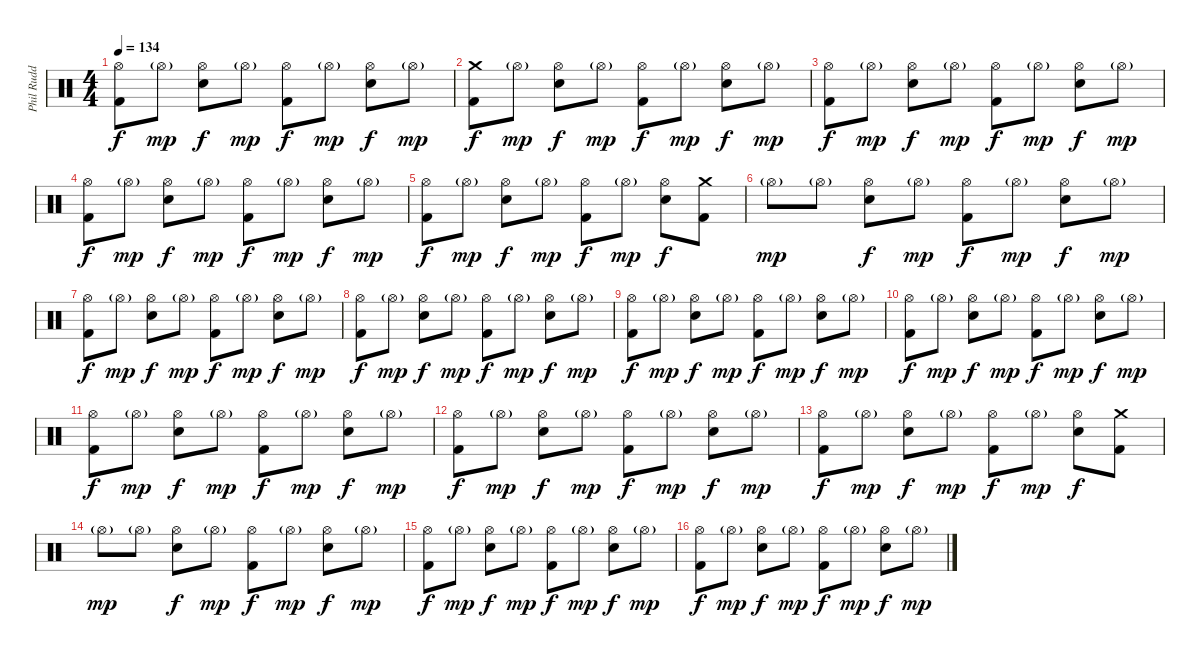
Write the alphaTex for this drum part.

\track ("Phil Rudd" "Phil Rudd") {instrument percussion}
\staff {score}
\articulation defaults
\ts (4 4)
\tempo 134
\clef neutral
\ks c
("Hi-Hat (open)" "Kick (hit) 2").8{dy f} "Hi-Hat (open)"{g}.8{dy mp} ("Hi-Hat (open)" "Snare (hit) 2").8{dy f} "Hi-Hat (open)"{g}.8{dy mp} ("Hi-Hat (open)" "Kick (hit) 2").8{dy f} "Hi-Hat (open)"{g}.8{dy mp} ("Hi-Hat (open)" "Snare (hit) 2").8{dy f} "Hi-Hat (open)"{g}.8{dy mp} |
("Crash medium (hit)" "Kick (hit) 2").8{dy f} "Hi-Hat (open)"{g}.8{dy mp} ("Hi-Hat (open)" "Snare (hit) 2").8{dy f} "Hi-Hat (open)"{g}.8{dy mp} ("Hi-Hat (open)" "Kick (hit) 2").8{dy f} "Hi-Hat (open)"{g}.8{dy mp} ("Hi-Hat (open)" "Snare (hit) 2").8{dy f} "Hi-Hat (open)"{g}.8{dy mp} |
("Hi-Hat (open)" "Kick (hit) 2").8{dy f} "Hi-Hat (open)"{g}.8{dy mp} ("Hi-Hat (open)" "Snare (hit) 2").8{dy f} "Hi-Hat (open)"{g}.8{dy mp} ("Hi-Hat (open)" "Kick (hit) 2").8{dy f} "Hi-Hat (open)"{g}.8{dy mp} ("Hi-Hat (open)" "Snare (hit) 2").8{dy f} "Hi-Hat (open)"{g}.8{dy mp} |
("Hi-Hat (open)" "Kick (hit) 2").8{dy f} "Hi-Hat (open)"{g}.8{dy mp} ("Hi-Hat (open)" "Snare (hit) 2").8{dy f} "Hi-Hat (open)"{g}.8{dy mp} ("Hi-Hat (open)" "Kick (hit) 2").8{dy f} "Hi-Hat (open)"{g}.8{dy mp} ("Hi-Hat (open)" "Snare (hit) 2").8{dy f} "Hi-Hat (open)"{g}.8{dy mp} |
("Hi-Hat (open)" "Kick (hit) 2").8{dy f} "Hi-Hat (open)"{g}.8{dy mp} ("Hi-Hat (open)" "Snare (hit) 2").8{dy f} "Hi-Hat (open)"{g}.8{dy mp} ("Hi-Hat (open)" "Kick (hit) 2").8{dy f} "Hi-Hat (open)"{g}.8{dy mp} ("Hi-Hat (open)" "Snare (hit) 2").8{dy f} ("Crash medium (hit)" "Kick (hit) 2").8 |
"Hi-Hat (open)"{g}.8{dy mp} "Hi-Hat (open)"{g}.8 ("Hi-Hat (open)" "Snare (hit) 2").8{dy f} "Hi-Hat (open)"{g}.8{dy mp} ("Hi-Hat (open)" "Kick (hit) 2").8{dy f} "Hi-Hat (open)"{g}.8{dy mp} ("Hi-Hat (open)" "Snare (hit) 2").8{dy f} "Hi-Hat (open)"{g}.8{dy mp} |
("Hi-Hat (open)" "Kick (hit) 2").8{dy f} "Hi-Hat (open)"{g}.8{dy mp} ("Hi-Hat (open)" "Snare (hit) 2").8{dy f} "Hi-Hat (open)"{g}.8{dy mp} ("Hi-Hat (open)" "Kick (hit) 2").8{dy f} "Hi-Hat (open)"{g}.8{dy mp} ("Hi-Hat (open)" "Snare (hit) 2").8{dy f} "Hi-Hat (open)"{g}.8{dy mp} |
("Hi-Hat (open)" "Kick (hit) 2").8{dy f} "Hi-Hat (open)"{g}.8{dy mp} ("Hi-Hat (open)" "Snare (hit) 2").8{dy f} "Hi-Hat (open)"{g}.8{dy mp} ("Hi-Hat (open)" "Kick (hit) 2").8{dy f} "Hi-Hat (open)"{g}.8{dy mp} ("Hi-Hat (open)" "Snare (hit) 2").8{dy f} "Hi-Hat (open)"{g}.8{dy mp} |
("Hi-Hat (open)" "Kick (hit) 2").8{dy f} "Hi-Hat (open)"{g}.8{dy mp} ("Hi-Hat (open)" "Snare (hit) 2").8{dy f} "Hi-Hat (open)"{g}.8{dy mp} ("Hi-Hat (open)" "Kick (hit) 2").8{dy f} "Hi-Hat (open)"{g}.8{dy mp} ("Hi-Hat (open)" "Snare (hit) 2").8{dy f} "Hi-Hat (open)"{g}.8{dy mp} |
("Hi-Hat (open)" "Kick (hit) 2").8{dy f} "Hi-Hat (open)"{g}.8{dy mp} ("Hi-Hat (open)" "Snare (hit) 2").8{dy f} "Hi-Hat (open)"{g}.8{dy mp} ("Hi-Hat (open)" "Kick (hit) 2").8{dy f} "Hi-Hat (open)"{g}.8{dy mp} ("Hi-Hat (open)" "Snare (hit) 2").8{dy f} "Hi-Hat (open)"{g}.8{dy mp} |
("Hi-Hat (open)" "Kick (hit) 2").8{dy f} "Hi-Hat (open)"{g}.8{dy mp} ("Hi-Hat (open)" "Snare (hit) 2").8{dy f} "Hi-Hat (open)"{g}.8{dy mp} ("Hi-Hat (open)" "Kick (hit) 2").8{dy f} "Hi-Hat (open)"{g}.8{dy mp} ("Hi-Hat (open)" "Snare (hit) 2").8{dy f} "Hi-Hat (open)"{g}.8{dy mp} |
("Hi-Hat (open)" "Kick (hit) 2").8{dy f} "Hi-Hat (open)"{g}.8{dy mp} ("Hi-Hat (open)" "Snare (hit) 2").8{dy f} "Hi-Hat (open)"{g}.8{dy mp} ("Hi-Hat (open)" "Kick (hit) 2").8{dy f} "Hi-Hat (open)"{g}.8{dy mp} ("Hi-Hat (open)" "Snare (hit) 2").8{dy f} "Hi-Hat (open)"{g}.8{dy mp} |
("Hi-Hat (open)" "Kick (hit) 2").8{dy f} "Hi-Hat (open)"{g}.8{dy mp} ("Hi-Hat (open)" "Snare (hit) 2").8{dy f} "Hi-Hat (open)"{g}.8{dy mp} ("Hi-Hat (open)" "Kick (hit) 2").8{dy f} "Hi-Hat (open)"{g}.8{dy mp} ("Hi-Hat (open)" "Snare (hit) 2").8{dy f} ("Crash medium (hit)" "Kick (hit) 2").8 |
"Hi-Hat (open)"{g}.8{dy mp} "Hi-Hat (open)"{g}.8 ("Hi-Hat (open)" "Snare (hit) 2").8{dy f} "Hi-Hat (open)"{g}.8{dy mp} ("Hi-Hat (open)" "Kick (hit) 2").8{dy f} "Hi-Hat (open)"{g}.8{dy mp} ("Hi-Hat (open)" "Snare (hit) 2").8{dy f} "Hi-Hat (open)"{g}.8{dy mp} |
("Hi-Hat (open)" "Kick (hit) 2").8{dy f} "Hi-Hat (open)"{g}.8{dy mp} ("Hi-Hat (open)" "Snare (hit) 2").8{dy f} "Hi-Hat (open)"{g}.8{dy mp} ("Hi-Hat (open)" "Kick (hit) 2").8{dy f} "Hi-Hat (open)"{g}.8{dy mp} ("Hi-Hat (open)" "Snare (hit) 2").8{dy f} "Hi-Hat (open)"{g}.8{dy mp} |
("Hi-Hat (open)" "Kick (hit) 2").8{dy f} "Hi-Hat (open)"{g}.8{dy mp} ("Hi-Hat (open)" "Snare (hit) 2").8{dy f} "Hi-Hat (open)"{g}.8{dy mp} ("Hi-Hat (open)" "Kick (hit) 2").8{dy f} "Hi-Hat (open)"{g}.8{dy mp} ("Hi-Hat (open)" "Snare (hit) 2").8{dy f} "Hi-Hat (open)"{g}.8{dy mp}
